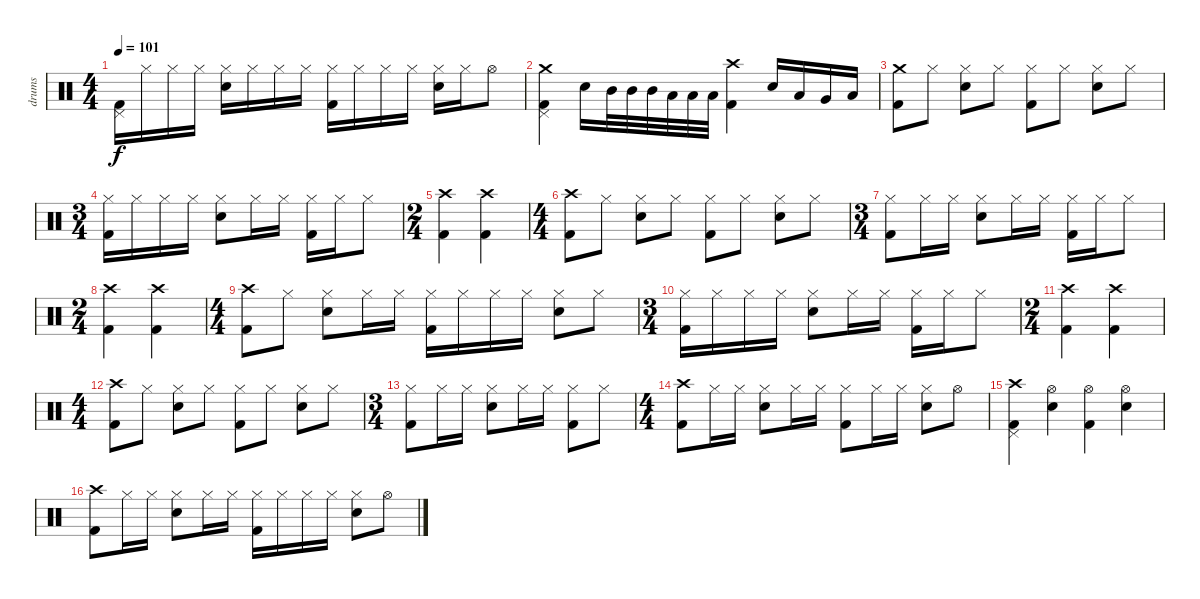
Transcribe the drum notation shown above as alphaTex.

\track ("drums" "drums") {instrument percussion}
\staff {score}
\articulation defaults
\ts (4 4)
\tempo 101
\clef neutral
\ks c
("Pedal Hi-Hat (hit)" "Kick (hit) 2").16{dy f} "Hi-Hat (closed)".16 "Hi-Hat (closed)".16 "Hi-Hat (closed)".16 ("Hi-Hat (closed)" "Electric Snare (hit)").16 "Hi-Hat (closed)".16 "Hi-Hat (closed)".16 "Hi-Hat (closed)".16 ("Hi-Hat (closed)" "Kick (hit) 2").16 "Hi-Hat (closed)".16 "Hi-Hat (closed)".16 "Hi-Hat (closed)".16 ("Hi-Hat (closed)" "Electric Snare (hit)").16 "Hi-Hat (closed)".16 "Hi-Hat (open)".8 |
("Crash medium (hit)" "Pedal Hi-Hat (hit)" "Kick (hit) 2").4 "Electric Snare (hit)".16 "Mid Tom (hit)".32 "Mid Tom (hit)".32 "Mid Tom (hit)".32 "Low Tom (hit)".32 "Low Tom (hit)".32 "Low Tom (hit)".32 ("Crash high (hit)" "Kick (hit) 2").4 "Electric Snare (hit)".16 "Low Tom (hit)".16 "Very Low Tom (hit)".16 "Low Floor Tom (hit)".16 |
("Crash medium (hit)" "Kick (hit) 2").8 "Hi-Hat (closed)".8 ("Hi-Hat (closed)" "Electric Snare (hit)").8 "Hi-Hat (closed)".8 ("Hi-Hat (closed)" "Kick (hit) 2").8 "Hi-Hat (closed)".8 ("Hi-Hat (closed)" "Electric Snare (hit)").8 "Hi-Hat (closed)".8 |
\ts (3 4)
("Hi-Hat (closed)" "Kick (hit) 2").16 "Hi-Hat (closed)".16 "Hi-Hat (closed)".16 "Hi-Hat (closed)".16 ("Hi-Hat (closed)" "Electric Snare (hit)").8 "Hi-Hat (closed)".16 "Hi-Hat (closed)".16 ("Hi-Hat (closed)" "Kick (hit) 2").16 "Hi-Hat (closed)".16 "Hi-Hat (closed)".8 |
\ts (2 4)
("Crash high (hit)" "Kick (hit) 2").4 ("Crash high (hit)" "Kick (hit) 2").4 |
\ts (4 4)
("Crash high (hit)" "Kick (hit) 2").8 "Hi-Hat (closed)".8 ("Hi-Hat (closed)" "Electric Snare (hit)").8 "Hi-Hat (closed)".8 ("Hi-Hat (closed)" "Kick (hit) 2").8 "Hi-Hat (closed)".8 ("Hi-Hat (closed)" "Electric Snare (hit)").8 "Hi-Hat (closed)".8 |
\ts (3 4)
("Hi-Hat (closed)" "Kick (hit) 2").8 "Hi-Hat (closed)".16 "Hi-Hat (closed)".16 ("Hi-Hat (closed)" "Electric Snare (hit)").8 "Hi-Hat (closed)".16 "Hi-Hat (closed)".16 ("Hi-Hat (closed)" "Kick (hit) 2").16 "Hi-Hat (closed)".16 "Hi-Hat (closed)".8 |
\ts (2 4)
("Crash high (hit)" "Kick (hit) 2").4 ("Crash high (hit)" "Kick (hit) 2").4 |
\ts (4 4)
("Crash high (hit)" "Kick (hit) 2").8 "Hi-Hat (closed)".8 ("Hi-Hat (closed)" "Electric Snare (hit)").8 "Hi-Hat (closed)".16 "Hi-Hat (closed)".16 ("Hi-Hat (closed)" "Kick (hit) 2").16 "Hi-Hat (closed)".16 "Hi-Hat (closed)".16 "Hi-Hat (closed)".16 ("Hi-Hat (closed)" "Electric Snare (hit)").8 "Hi-Hat (closed)".8 |
\ts (3 4)
("Hi-Hat (closed)" "Kick (hit) 2").16 "Hi-Hat (closed)".16 "Hi-Hat (closed)".16 "Hi-Hat (closed)".16 ("Hi-Hat (closed)" "Electric Snare (hit)").8 "Hi-Hat (closed)".16 "Hi-Hat (closed)".16 ("Hi-Hat (closed)" "Kick (hit) 2").16 "Hi-Hat (closed)".16 "Hi-Hat (closed)".8 |
\ts (2 4)
("Crash high (hit)" "Kick (hit) 2").4 ("Crash high (hit)" "Kick (hit) 2").4 |
\ts (4 4)
("Crash high (hit)" "Kick (hit) 2").8 "Hi-Hat (closed)".8 ("Hi-Hat (closed)" "Electric Snare (hit)").8 "Hi-Hat (closed)".8 ("Hi-Hat (closed)" "Kick (hit) 2").8 "Hi-Hat (closed)".8 ("Hi-Hat (closed)" "Electric Snare (hit)").8 "Hi-Hat (closed)".8 |
\ts (3 4)
("Hi-Hat (closed)" "Kick (hit) 2").8 "Hi-Hat (closed)".16 "Hi-Hat (closed)".16 ("Hi-Hat (closed)" "Electric Snare (hit)").8 "Hi-Hat (closed)".16 "Hi-Hat (closed)".16 ("Hi-Hat (closed)" "Kick (hit) 2").8 "Hi-Hat (closed)".8 |
\ts (4 4)
("Crash high (hit)" "Kick (hit) 2").8 "Hi-Hat (closed)".16 "Hi-Hat (closed)".16 ("Hi-Hat (closed)" "Electric Snare (hit)").8 "Hi-Hat (closed)".16 "Hi-Hat (closed)".16 ("Hi-Hat (closed)" "Kick (hit) 2").8 "Hi-Hat (closed)".16 "Hi-Hat (closed)".16 ("Hi-Hat (closed)" "Electric Snare (hit)").8 "Hi-Hat (open)".8 |
("Crash high (hit)" "Pedal Hi-Hat (hit)" "Kick (hit) 2").4 ("Hi-Hat (open)" "Electric Snare (hit)").4 ("Hi-Hat (open)" "Kick (hit) 2").4 ("Hi-Hat (open)" "Electric Snare (hit)").4 |
("Crash high (hit)" "Kick (hit) 2").8 "Hi-Hat (closed)".16 "Hi-Hat (closed)".16 ("Hi-Hat (closed)" "Electric Snare (hit)").8 "Hi-Hat (closed)".16 "Hi-Hat (closed)".16 ("Hi-Hat (closed)" "Kick (hit) 2").16 "Hi-Hat (closed)".16 "Hi-Hat (closed)".16 "Hi-Hat (closed)".16 ("Hi-Hat (closed)" "Electric Snare (hit)").8 "Hi-Hat (open)".8
